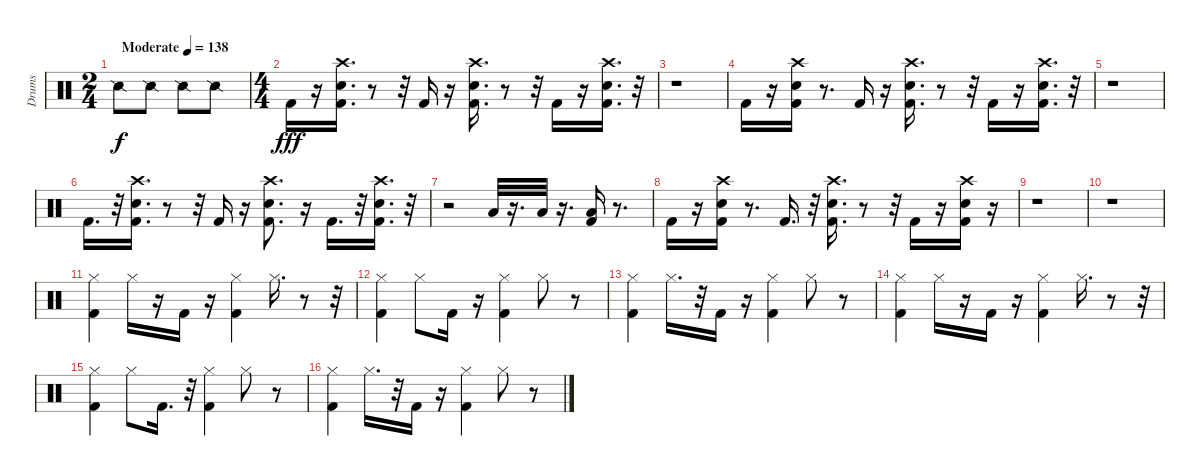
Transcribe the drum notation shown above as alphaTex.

\track ("Drums" "Drums") {instrument percussion}
\staff {score}
\articulation defaults
\ts (2 4)
\tempo (138 "Moderate")
\clef neutral
\ks c "Snare (side stick) 2".8{dy f} "Snare (side stick) 2".8 "Snare (side stick) 2".8 "Snare (side stick) 2".8
|
\ts (4 4)
"Kick (hit) 2".16{dy fff} r.16 ("Kick (hit) 2" "Snare (hit) 2" "Crash high (hit)").16{d} r.8 r.32 "Kick (hit) 2".16 r.16 ("Kick (hit) 2" "Snare (hit) 2" "Crash high (hit)").16{d} r.8 r.32 "Kick (hit) 2".16 r.16 ("Kick (hit) 2" "Snare (hit) 2" "Crash high (hit)").16{d} r.32 |
r.1 |
"Kick (hit) 2".16 r.16 ("Kick (hit) 2" "Snare (hit) 2" "Crash high (hit)").16 r.8{d} "Kick (hit) 2".16 r.16 ("Kick (hit) 2" "Snare (hit) 2" "Crash high (hit)").16{d} r.8 r.32 "Kick (hit) 2".16 r.16 ("Kick (hit) 2" "Snare (hit) 2" "Crash high (hit)").16{d} r.32 |
r.1 |
"Kick (hit) 2".16{d} r.32 ("Kick (hit) 2" "Snare (hit) 2" "Crash high (hit)").16{d} r.8 r.32 "Kick (hit) 2".16 r.16 ("Kick (hit) 2" "Snare (hit) 2" "Crash high (hit)").8{d} r.16 "Kick (hit) 2".16{d} r.32 ("Kick (hit) 2" "Snare (hit) 2" "Crash high (hit)").16{d} r.32 |
r.2 "Low Floor Tom (hit)".32 r.16{d} "Low Floor Tom (hit)".32 r.16{d} ("Kick (hit) 2" "Low Floor Tom (hit)").16 r.8{d} |
"Kick (hit) 2".16 r.16 ("Kick (hit) 2" "Snare (hit) 2" "Crash high (hit)").16 r.8{d} "Kick (hit) 2".16{d} r.32 ("Kick (hit) 2" "Snare (hit) 2" "Crash high (hit)").16{d} r.8 r.32 "Kick (hit) 2".16 r.16 ("Kick (hit) 2" "Snare (hit) 2" "Crash high (hit)").16 r.16 |
r.1 |
r.1 |
("Kick (hit) 2" "Hi-Hat (closed)").4 "Hi-Hat (closed)".16 r.16 "Kick (hit) 2".16 r.16 ("Kick (hit) 2" "Hi-Hat (closed)").4 "Hi-Hat (closed)".16{d} r.8 r.32 |
("Kick (hit) 2" "Hi-Hat (closed)").4 "Hi-Hat (closed)".8 "Kick (hit) 2".16 r.16 ("Kick (hit) 2" "Hi-Hat (closed)").4 "Hi-Hat (closed)".8 r.8 |
("Kick (hit) 2" "Hi-Hat (closed)").4 "Hi-Hat (closed)".16{d} r.32 "Kick (hit) 2".16 r.16 ("Kick (hit) 2" "Hi-Hat (closed)").4 "Hi-Hat (closed)".8 r.8 |
("Kick (hit) 2" "Hi-Hat (closed)").4 "Hi-Hat (closed)".16 r.16 "Kick (hit) 2".16 r.16 ("Kick (hit) 2" "Hi-Hat (closed)").4 "Hi-Hat (closed)".16{d} r.8 r.32 |
("Kick (hit) 2" "Hi-Hat (closed)").4 "Hi-Hat (closed)".8 "Kick (hit) 2".16{d} r.32 ("Kick (hit) 2" "Hi-Hat (closed)").4 "Hi-Hat (closed)".8 r.8 |
("Kick (hit) 2" "Hi-Hat (closed)").4 "Hi-Hat (closed)".16{d} r.32 "Kick (hit) 2".16 r.16 ("Kick (hit) 2" "Hi-Hat (closed)").4 "Hi-Hat (closed)".8 r.8
